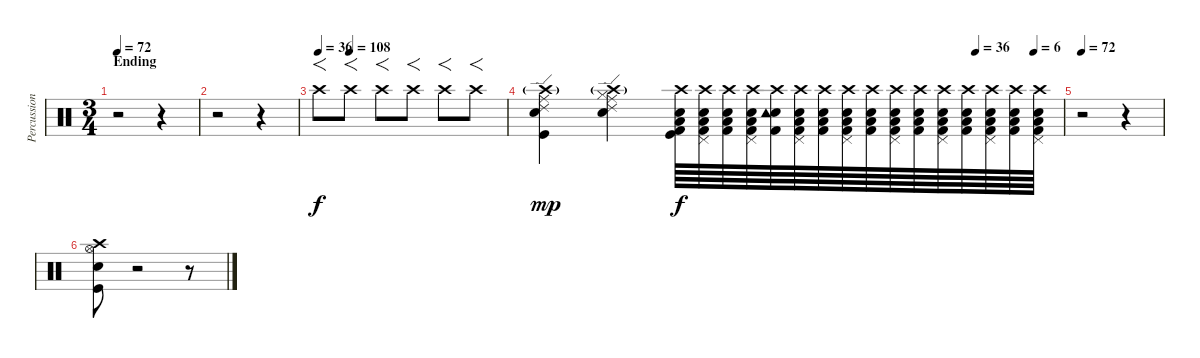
\track ("Percussion" "Percussion") {instrument percussion}
\staff {score}
\articulation defaults
\ts (3 4)
\section ("" "Ending")
\tempo 72
\clef neutral
\ks c
r.2{dy f} r.4 |
r.2 r.4 |
\tempo 36
\tempo (108 0.16666666666666666)
"Crash high (hit)".8{f} "Crash high (hit)".8{f} "Crash high (hit)".8{f} "Crash high (hit)".8{f} "Crash high (hit)".8{f} "Crash high (hit)".8{f} |
\tempo (36 0.8333333333333334)
\tempo (6 0.9444444444444444)
("Kick (hit)" "Ride (edge) 2" "Crash high (hit)"{g} "Ride (middle)" "Metronome (bell)").4{dy mp} ("Hi-Hat (closed)" "Ride (edge) 2" "Crash high (hit)"{g} "Ride (middle)" "Metronome (bell)").4 ("Kick (hit)" "Kick (hit) 2" "Electric Snare (hit)" "Crash high (hit)" "Low Tom (hit)").64{dy f volume 0 balance 0} ("Kick (hit) 2" "Electric Snare (hit)" "Pedal Hi-Hat (hit)" "Crash high (hit)" "Low Tom (hit)").64 ("Kick (hit) 2" "Electric Snare (hit)" "Crash high (hit)" "Low Tom (hit)").64 ("Kick (hit) 2" "Electric Snare (hit)" "Pedal Hi-Hat (hit)" "Crash high (hit)" "Low Tom (hit)").64 ("Kick (hit) 2" "Electric Snare (hit)" "Crash high (hit)" "Tambourine (hit)").64 ("Kick (hit) 2" "Electric Snare (hit)" "Pedal Hi-Hat (hit)" "Crash high (hit)" "Low Tom (hit)").64 ("Kick (hit) 2" "Electric Snare (hit)" "Crash high (hit)" "Low Tom (hit)").64 ("Kick (hit) 2" "Electric Snare (hit)" "Pedal Hi-Hat (hit)" "Crash high (hit)" "Low Tom (hit)").64 ("Kick (hit) 2" "Electric Snare (hit)" "Crash high (hit)" "Low Tom (hit)").64 ("Kick (hit) 2" "Electric Snare (hit)" "Pedal Hi-Hat (hit)" "Crash high (hit)" "Low Tom (hit)").64 ("Kick (hit) 2" "Electric Snare (hit)" "Crash high (hit)" "Low Tom (hit)").64 ("Kick (hit) 2" "Electric Snare (hit)" "Pedal Hi-Hat (hit)" "Crash high (hit)" "Low Tom (hit)").64 ("Kick (hit) 2" "Electric Snare (hit)" "Crash high (hit)" "Low Tom (hit)").64 ("Kick (hit) 2" "Electric Snare (hit)" "Pedal Hi-Hat (hit)" "Crash high (hit)" "Low Tom (hit)").64 ("Kick (hit) 2" "Electric Snare (hit)" "Crash high (hit)" "Low Tom (hit)").64 ("Kick (hit) 2" "Electric Snare (hit)" "Pedal Hi-Hat (hit)" "Crash high (hit)" "Low Tom (hit)").64 |
\tempo 72
r.2 r.4 |
("Electric Snare (hit)" "Crash high (hit)" "Hi-Hat (open)"{tr (44 16)} "Kick (hit)").8{volume 12} r.2 r.8{volume 0}
